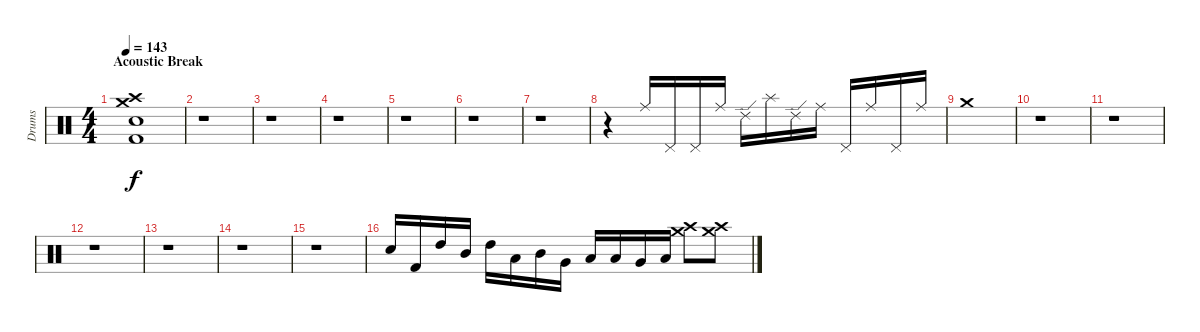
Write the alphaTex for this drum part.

\track ("Drums" "Drums") {instrument percussion}
\staff {score}
\articulation defaults
\ts (4 4)
\section ("" "Acoustic Break")
\tempo 143
\clef neutral
\ks c
("Crash medium (hit)" "Crash high (hit)" "Electric Snare (hit)" "Kick (hit) 2").1{dy f} |
r.1 |
r.1 |
r.1 |
r.1 |
r.1 |
r.1 |
r.4 "Ride (middle)".16 "Pedal Hi-Hat (hit)".16 "Pedal Hi-Hat (hit)".16 "Ride (middle)".16 "Ride (edge) 2".16 "Splash (hit)".16 "Ride (edge) 2".16 "Ride (middle)".16 "Pedal Hi-Hat (hit)".16 "Ride (middle)".16 "Pedal Hi-Hat (hit)".16 "Ride (middle)".16 |
"Crash medium (hit)".1 |
r.1 |
r.1 |
r.1 |
r.1 |
r.1 |
r.1 |
"Snare (hit) 2".16 "Kick (hit) 2".16 "High Tom (hit)".16 "Mid Tom (hit)".16 "High Tom (hit)".16 "Low Tom (hit)".16 "Mid Tom (hit)".16 "Very Low Tom (hit)".16 "Low Tom (hit)".16 "Low Floor Tom (hit)".16 "Very Low Tom (hit)".16 "Low Floor Tom (hit)".16 ("Crash medium (hit)" "Crash high (hit)").8 ("Crash medium (hit)" "Crash high (hit)").8
